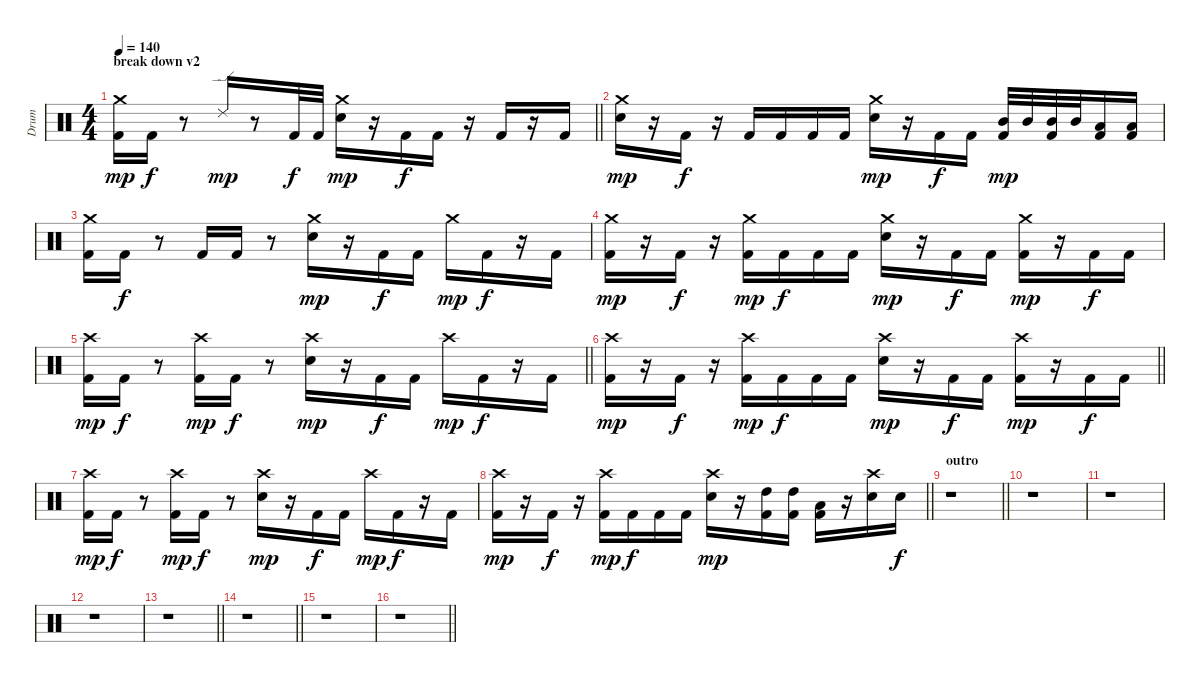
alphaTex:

\track ("Drum" "Drum") {instrument percussion}
\staff {score}
\articulation defaults
\ts (4 4)
\section ("" "break down v2")
\tempo 140
\clef neutral
\barLineRight lightlight
\ks c
("Crash medium (hit)" "Kick (hit) 2").16{dy mp} "Kick (hit) 2".16{dy f} r.8 "Ride (edge) 2".16{dy mp} r.8 "Kick (hit) 2".32{dy f} "Kick (hit) 2".32 ("Crash medium (hit)" "Electric Snare (hit)").16{dy mp} r.16 "Kick (hit) 2".16{dy f} "Kick (hit) 2".16 r.16 "Kick (hit) 2".16 r.16 "Kick (hit) 2".16 |
("Crash medium (hit)" "Snare (hit) 2").16{dy mp} r.16 "Kick (hit) 2".16{dy f} r.16 "Kick (hit) 2".16 "Kick (hit) 2".16 "Kick (hit) 2".16 "Kick (hit) 2".16 ("Crash medium (hit)" "Electric Snare (hit)").16{dy mp} r.16 "Kick (hit) 2".16{dy f} "Kick (hit) 2".16 ("Mid Tom (hit)" "Kick (hit) 2").32{dy mp} "Mid Tom (hit)".32 ("Mid Tom (hit)" "Kick (hit) 2").32 "Mid Tom (hit)".32 ("Low Tom (hit)" "Kick (hit) 2").16 ("Low Tom (hit)" "Kick (hit) 2").16 |
("Crash medium (hit)" "Kick (hit) 2").16 "Kick (hit) 2".16{dy f} r.8 "Kick (hit) 2".16 "Kick (hit) 2".16 r.8 ("Crash medium (hit)" "Electric Snare (hit)").16{dy mp} r.16 "Kick (hit) 2".16{dy f} "Kick (hit) 2".16 "Crash medium (hit)".16{dy mp} "Kick (hit) 2".16{dy f} r.16 "Kick (hit) 2".16 |
("Crash medium (hit)" "Kick (hit) 2").16{dy mp} r.16 "Kick (hit) 2".16{dy f} r.16 ("Crash medium (hit)" "Kick (hit) 2").16{dy mp} "Kick (hit) 2".16{dy f} "Kick (hit) 2".16 "Kick (hit) 2".16 ("Crash medium (hit)" "Electric Snare (hit)").16{dy mp} r.16 "Kick (hit) 2".16{dy f} "Kick (hit) 2".16 ("Crash medium (hit)" "Kick (hit) 2").16{dy mp} r.16 "Kick (hit) 2".16{dy f} "Kick (hit) 2".16 |
\barLineRight lightlight
("Crash high (hit)" "Kick (hit) 2").16{dy mp} "Kick (hit) 2".16{dy f} r.8 ("Crash high (hit)" "Kick (hit) 2").16{dy mp} "Kick (hit) 2".16{dy f} r.8 ("Crash high (hit)" "Electric Snare (hit)").16{dy mp} r.16 "Kick (hit) 2".16{dy f} "Kick (hit) 2".16 "Crash high (hit)".16{dy mp} "Kick (hit) 2".16{dy f} r.16 "Kick (hit) 2".16 |
\barLineRight lightlight
("Crash high (hit)" "Kick (hit) 2").16{dy mp} r.16 "Kick (hit) 2".16{dy f} r.16 ("Crash high (hit)" "Kick (hit) 2").16{dy mp} "Kick (hit) 2".16{dy f} "Kick (hit) 2".16 "Kick (hit) 2".16 ("Crash high (hit)" "Electric Snare (hit)").16{dy mp} r.16 "Kick (hit) 2".16{dy f} "Kick (hit) 2".16 ("Crash high (hit)" "Kick (hit) 2").16{dy mp} r.16 "Kick (hit) 2".16{dy f} "Kick (hit) 2".16 |
("Crash high (hit)" "Kick (hit) 2").16{dy mp} "Kick (hit) 2".16{dy f} r.8 ("Crash high (hit)" "Kick (hit) 2").16{dy mp} "Kick (hit) 2".16{dy f} r.8 ("Crash high (hit)" "Electric Snare (hit)").16{dy mp} r.16 "Kick (hit) 2".16{dy f} "Kick (hit) 2".16 "Crash high (hit)".16{dy mp} "Kick (hit) 2".16{dy f} r.16 "Kick (hit) 2".16 |
\barLineRight lightlight
("Crash high (hit)" "Kick (hit) 2").16{dy mp} r.16 "Kick (hit) 2".16{dy f} r.16 ("Crash high (hit)" "Kick (hit) 2").16{dy mp} "Kick (hit) 2".16{dy f} "Kick (hit) 2".16 "Kick (hit) 2".16 ("Crash high (hit)" "Electric Snare (hit)").16{dy mp} r.16 ("High Tom (hit)" "Kick (hit) 2").16 ("High Tom (hit)" "Kick (hit) 2").16 ("Low Tom (hit)" "Kick (hit) 2").16 r.16 ("Crash high (hit)" "Electric Snare (hit)").16 "Electric Snare (hit)".16{dy f} |
\section ("" "outro")
\barLineRight lightlight
r.1 |
r.1 |
r.1 |
r.1 |
\barLineRight lightlight
r.1 |
\barLineRight lightlight
r.1 |
r.1 |
\barLineRight lightlight
r.1
